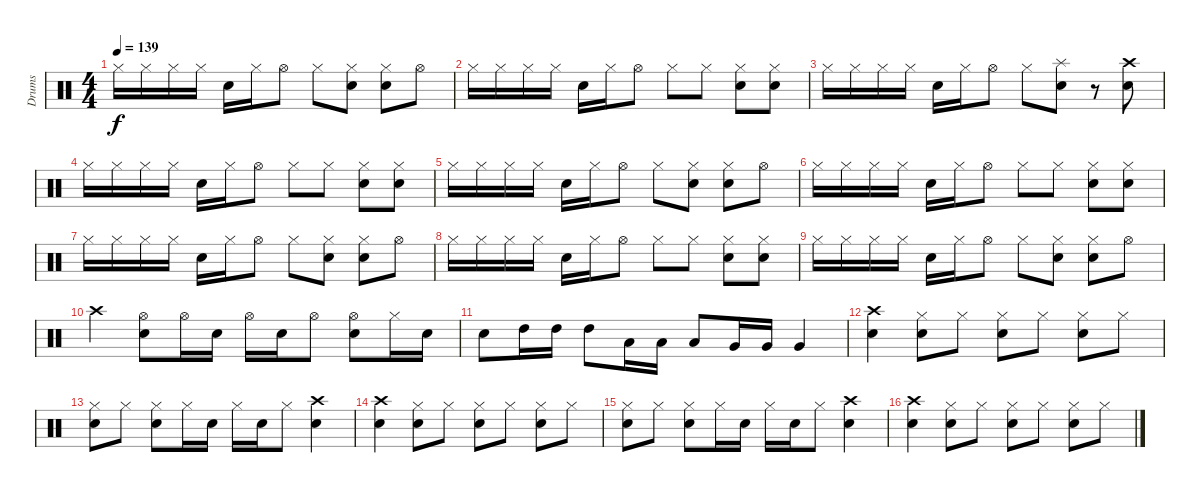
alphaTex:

\track ("Drums" "Drums") {instrument percussion}
\staff {score}
\articulation defaults
\ts (4 4)
\tempo 139
\clef neutral
\ks c "Hi-Hat (closed)".16{dy f} "Hi-Hat (closed)".16 "Hi-Hat (closed)".16 "Hi-Hat (closed)".16 "Snare (hit) 2".16 "Hi-Hat (closed)".16 "Hi-Hat (open)".8 "Hi-Hat (closed)".8
("Hi-Hat (closed)" "Snare (hit) 2").8 ("Hi-Hat (closed)" "Snare (hit) 2").8 "Hi-Hat (open)".8 |
"Hi-Hat (closed)".16 "Hi-Hat (closed)".16 "Hi-Hat (closed)".16 "Hi-Hat (closed)".16 "Snare (hit) 2".16 "Hi-Hat (closed)".16 "Hi-Hat (open)".8 "Hi-Hat (closed)".8 "Hi-Hat (closed)".8 ("Hi-Hat (closed)" "Snare (hit) 2").8 ("Hi-Hat (closed)" "Snare (hit) 2").8 |
"Hi-Hat (closed)".16 "Hi-Hat (closed)".16 "Hi-Hat (closed)".16 "Hi-Hat (closed)".16 "Snare (hit) 2".16 "Hi-Hat (closed)".16 "Hi-Hat (open)".8 "Hi-Hat (closed)".8 ("Splash (hit)" "Snare (hit) 2").8 r.8 ("Crash high (hit)" "Snare (hit) 2").8 |
"Hi-Hat (closed)".16 "Hi-Hat (closed)".16 "Hi-Hat (closed)".16 "Hi-Hat (closed)".16 "Snare (hit) 2".16 "Hi-Hat (closed)".16 "Hi-Hat (open)".8 "Hi-Hat (closed)".8 "Hi-Hat (closed)".8 ("Hi-Hat (closed)" "Snare (hit) 2").8 ("Hi-Hat (closed)" "Snare (hit) 2").8 |
"Hi-Hat (closed)".16 "Hi-Hat (closed)".16 "Hi-Hat (closed)".16 "Hi-Hat (closed)".16 "Snare (hit) 2".16 "Hi-Hat (closed)".16 "Hi-Hat (open)".8 "Hi-Hat (closed)".8 ("Hi-Hat (closed)" "Snare (hit) 2").8 ("Hi-Hat (closed)" "Snare (hit) 2").8 "Hi-Hat (open)".8 |
"Hi-Hat (closed)".16 "Hi-Hat (closed)".16 "Hi-Hat (closed)".16 "Hi-Hat (closed)".16 "Snare (hit) 2".16 "Hi-Hat (closed)".16 "Hi-Hat (open)".8 "Hi-Hat (closed)".8 "Hi-Hat (closed)".8 ("Hi-Hat (closed)" "Snare (hit) 2").8 ("Hi-Hat (closed)" "Snare (hit) 2").8 |
"Hi-Hat (closed)".16 "Hi-Hat (closed)".16 "Hi-Hat (closed)".16 "Hi-Hat (closed)".16 "Snare (hit) 2".16 "Hi-Hat (closed)".16 "Hi-Hat (open)".8 "Hi-Hat (closed)".8 ("Hi-Hat (closed)" "Snare (hit) 2").8 ("Hi-Hat (closed)" "Snare (hit) 2").8 "Hi-Hat (open)".8 |
"Hi-Hat (closed)".16 "Hi-Hat (closed)".16 "Hi-Hat (closed)".16 "Hi-Hat (closed)".16 "Snare (hit) 2".16 "Hi-Hat (closed)".16 "Hi-Hat (open)".8 "Hi-Hat (closed)".8 "Hi-Hat (closed)".8 ("Hi-Hat (closed)" "Snare (hit) 2").8 ("Hi-Hat (closed)" "Snare (hit) 2").8 |
"Hi-Hat (closed)".16 "Hi-Hat (closed)".16 "Hi-Hat (closed)".16 "Hi-Hat (closed)".16 "Snare (hit) 2".16 "Hi-Hat (closed)".16 "Hi-Hat (open)".8 "Hi-Hat (closed)".8 ("Hi-Hat (closed)" "Snare (hit) 2").8 ("Hi-Hat (closed)" "Snare (hit) 2").8 "Hi-Hat (open)".8 |
"Crash high (hit)".4 ("Hi-Hat (open)" "Snare (hit) 2").8 "Hi-Hat (open)".16 "Snare (hit) 2".16 "Hi-Hat (open)".16 "Snare (hit) 2".16 "Hi-Hat (open)".8 ("Hi-Hat (open)" "Snare (hit) 2").8 "Hi-Hat (closed)".16 "Snare (hit) 2".16 |
"Snare (hit) 2".8 "High Tom (hit)".16 "High Tom (hit)".16 "High Tom (hit)".8 "Low Tom (hit)".16 "Low Tom (hit)".16 "Low Tom (hit)".8 "Very Low Tom (hit)".16 "Very Low Tom (hit)".16 "Very Low Tom (hit)".4 |
("Crash high (hit)" "Snare (hit) 2").4 ("Hi-Hat (closed)" "Snare (hit) 2").8 "Hi-Hat (closed)".8 ("Hi-Hat (closed)" "Snare (hit) 2").8 "Hi-Hat (closed)".8 ("Hi-Hat (closed)" "Snare (hit) 2").8 "Hi-Hat (closed)".8 |
("Hi-Hat (closed)" "Snare (hit) 2").8 "Hi-Hat (closed)".8 ("Hi-Hat (closed)" "Snare (hit) 2").8 "Hi-Hat (closed)".16 "Snare (hit) 2".16 "Hi-Hat (closed)".16 "Snare (hit) 2".16 "Hi-Hat (closed)".8 ("Crash high (hit)" "Snare (hit) 2").4 |
("Crash high (hit)" "Snare (hit) 2").4 ("Hi-Hat (closed)" "Snare (hit) 2").8 "Hi-Hat (closed)".8 ("Hi-Hat (closed)" "Snare (hit) 2").8 "Hi-Hat (closed)".8 ("Hi-Hat (closed)" "Snare (hit) 2").8 "Hi-Hat (closed)".8 |
("Hi-Hat (closed)" "Snare (hit) 2").8 "Hi-Hat (closed)".8 ("Hi-Hat (closed)" "Snare (hit) 2").8 "Hi-Hat (closed)".16 "Snare (hit) 2".16 "Hi-Hat (closed)".16 "Snare (hit) 2".16 "Hi-Hat (closed)".8 ("Crash high (hit)" "Snare (hit) 2").4 |
("Crash high (hit)" "Snare (hit) 2").4 ("Hi-Hat (closed)" "Snare (hit) 2").8 "Hi-Hat (closed)".8 ("Hi-Hat (closed)" "Snare (hit) 2").8 "Hi-Hat (closed)".8 ("Hi-Hat (closed)" "Snare (hit) 2").8 "Hi-Hat (closed)".8
